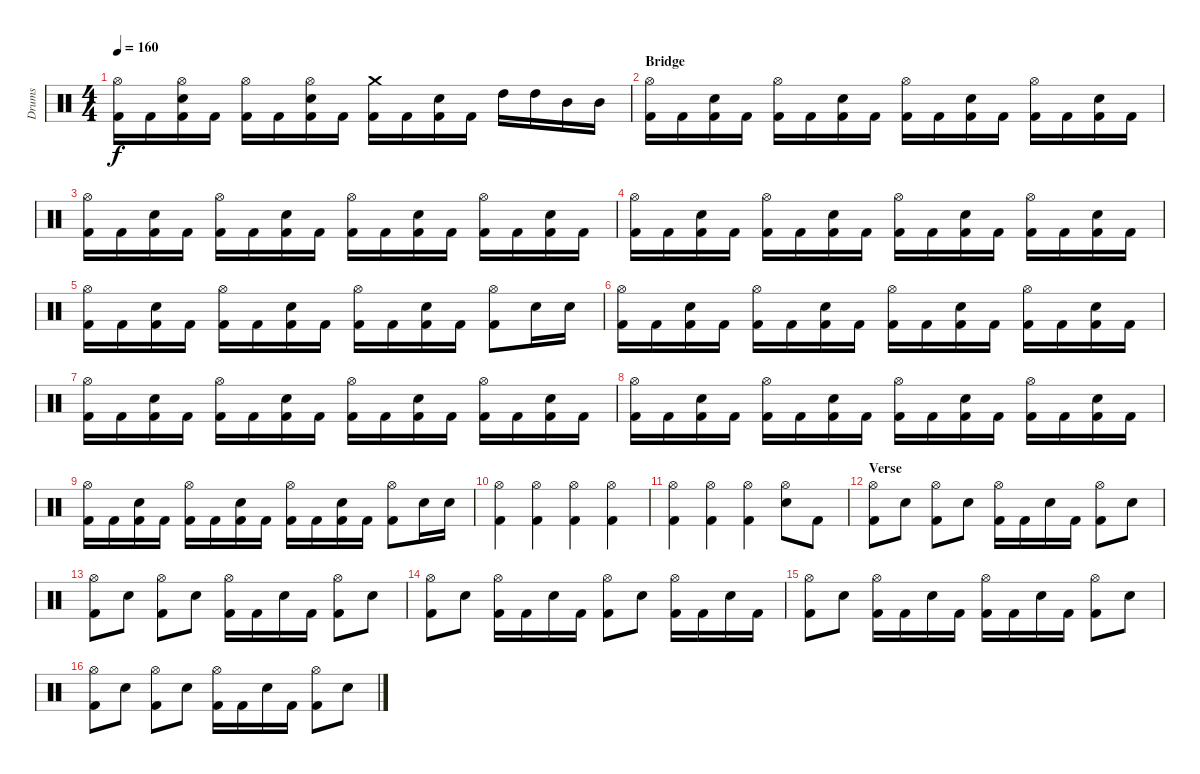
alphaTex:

\track ("Drums" "Drums") {instrument percussion}
\staff {score}
\articulation defaults
\ts (4 4)
\tempo 160
\clef neutral
\ks c
("Hi-Hat (open)" "Kick (hit) 2").16{dy f} "Kick (hit) 2".16 ("Hi-Hat (open)" "Electric Snare (hit)" "Kick (hit) 2").16 "Kick (hit) 2".16 ("Hi-Hat (open)" "Kick (hit) 2").16 "Kick (hit) 2".16 ("Hi-Hat (open)" "Electric Snare (hit)" "Kick (hit) 2").16 "Kick (hit) 2".16 ("Crash medium (hit)" "Kick (hit) 2").16 "Kick (hit) 2".16 ("Electric Snare (hit)" "Kick (hit) 2").16 "Kick (hit) 2".16 "High Tom (hit)".16 "High Tom (hit)".16 "Mid Tom (hit)".16 "Mid Tom (hit)".16 |
\section ("" "Bridge")
("Hi-Hat (open)" "Kick (hit) 2").16 "Kick (hit) 2".16 ("Electric Snare (hit)" "Kick (hit) 2").16 "Kick (hit) 2".16 ("Hi-Hat (open)" "Kick (hit) 2").16 "Kick (hit) 2".16 ("Electric Snare (hit)" "Kick (hit) 2").16 "Kick (hit) 2".16 ("Hi-Hat (open)" "Kick (hit) 2").16 "Kick (hit) 2".16 ("Electric Snare (hit)" "Kick (hit) 2").16 "Kick (hit) 2".16 ("Hi-Hat (open)" "Kick (hit) 2").16 "Kick (hit) 2".16 ("Electric Snare (hit)" "Kick (hit) 2").16 "Kick (hit) 2".16 |
("Hi-Hat (open)" "Kick (hit) 2").16 "Kick (hit) 2".16 ("Electric Snare (hit)" "Kick (hit) 2").16 "Kick (hit) 2".16 ("Hi-Hat (open)" "Kick (hit) 2").16 "Kick (hit) 2".16 ("Electric Snare (hit)" "Kick (hit) 2").16 "Kick (hit) 2".16 ("Hi-Hat (open)" "Kick (hit) 2").16 "Kick (hit) 2".16 ("Electric Snare (hit)" "Kick (hit) 2").16 "Kick (hit) 2".16 ("Hi-Hat (open)" "Kick (hit) 2").16 "Kick (hit) 2".16 ("Electric Snare (hit)" "Kick (hit) 2").16 "Kick (hit) 2".16 |
("Hi-Hat (open)" "Kick (hit) 2").16 "Kick (hit) 2".16 ("Electric Snare (hit)" "Kick (hit) 2").16 "Kick (hit) 2".16 ("Hi-Hat (open)" "Kick (hit) 2").16 "Kick (hit) 2".16 ("Electric Snare (hit)" "Kick (hit) 2").16 "Kick (hit) 2".16 ("Hi-Hat (open)" "Kick (hit) 2").16 "Kick (hit) 2".16 ("Electric Snare (hit)" "Kick (hit) 2").16 "Kick (hit) 2".16 ("Hi-Hat (open)" "Kick (hit) 2").16 "Kick (hit) 2".16 ("Electric Snare (hit)" "Kick (hit) 2").16 "Kick (hit) 2".16 |
("Hi-Hat (open)" "Kick (hit) 2").16 "Kick (hit) 2".16 ("Electric Snare (hit)" "Kick (hit) 2").16 "Kick (hit) 2".16 ("Hi-Hat (open)" "Kick (hit) 2").16 "Kick (hit) 2".16 ("Electric Snare (hit)" "Kick (hit) 2").16 "Kick (hit) 2".16 ("Hi-Hat (open)" "Kick (hit) 2").16 "Kick (hit) 2".16 ("Electric Snare (hit)" "Kick (hit) 2").16 "Kick (hit) 2".16 ("Hi-Hat (open)" "Kick (hit) 2").8 "Electric Snare (hit)".16 "Electric Snare (hit)".16 |
("Hi-Hat (open)" "Kick (hit) 2").16 "Kick (hit) 2".16 ("Electric Snare (hit)" "Kick (hit) 2").16 "Kick (hit) 2".16 ("Hi-Hat (open)" "Kick (hit) 2").16 "Kick (hit) 2".16 ("Electric Snare (hit)" "Kick (hit) 2").16 "Kick (hit) 2".16 ("Hi-Hat (open)" "Kick (hit) 2").16 "Kick (hit) 2".16 ("Electric Snare (hit)" "Kick (hit) 2").16 "Kick (hit) 2".16 ("Hi-Hat (open)" "Kick (hit) 2").16 "Kick (hit) 2".16 ("Electric Snare (hit)" "Kick (hit) 2").16 "Kick (hit) 2".16 |
("Hi-Hat (open)" "Kick (hit) 2").16 "Kick (hit) 2".16 ("Electric Snare (hit)" "Kick (hit) 2").16 "Kick (hit) 2".16 ("Hi-Hat (open)" "Kick (hit) 2").16 "Kick (hit) 2".16 ("Electric Snare (hit)" "Kick (hit) 2").16 "Kick (hit) 2".16 ("Hi-Hat (open)" "Kick (hit) 2").16 "Kick (hit) 2".16 ("Electric Snare (hit)" "Kick (hit) 2").16 "Kick (hit) 2".16 ("Hi-Hat (open)" "Kick (hit) 2").16 "Kick (hit) 2".16 ("Electric Snare (hit)" "Kick (hit) 2").16 "Kick (hit) 2".16 |
("Hi-Hat (open)" "Kick (hit) 2").16 "Kick (hit) 2".16 ("Electric Snare (hit)" "Kick (hit) 2").16 "Kick (hit) 2".16 ("Hi-Hat (open)" "Kick (hit) 2").16 "Kick (hit) 2".16 ("Electric Snare (hit)" "Kick (hit) 2").16 "Kick (hit) 2".16 ("Hi-Hat (open)" "Kick (hit) 2").16 "Kick (hit) 2".16 ("Electric Snare (hit)" "Kick (hit) 2").16 "Kick (hit) 2".16 ("Hi-Hat (open)" "Kick (hit) 2").16 "Kick (hit) 2".16 ("Electric Snare (hit)" "Kick (hit) 2").16 "Kick (hit) 2".16 |
("Hi-Hat (open)" "Kick (hit) 2").16 "Kick (hit) 2".16 ("Electric Snare (hit)" "Kick (hit) 2").16 "Kick (hit) 2".16 ("Hi-Hat (open)" "Kick (hit) 2").16 "Kick (hit) 2".16 ("Electric Snare (hit)" "Kick (hit) 2").16 "Kick (hit) 2".16 ("Hi-Hat (open)" "Kick (hit) 2").16 "Kick (hit) 2".16 ("Electric Snare (hit)" "Kick (hit) 2").16 "Kick (hit) 2".16 ("Hi-Hat (open)" "Kick (hit) 2").8 "Electric Snare (hit)".16 "Electric Snare (hit)".16 |
("Hi-Hat (open)" "Kick (hit) 2").4 ("Hi-Hat (open)" "Kick (hit) 2").4 ("Hi-Hat (open)" "Kick (hit) 2").4 ("Hi-Hat (open)" "Kick (hit) 2").4 |
("Hi-Hat (open)" "Kick (hit) 2").4 ("Hi-Hat (open)" "Kick (hit) 2").4 ("Hi-Hat (open)" "Kick (hit) 2").4 ("Hi-Hat (open)" "Electric Snare (hit)").8 "Kick (hit) 2".8 |
\section ("" "Verse")
("Hi-Hat (open)" "Kick (hit) 2").8 "Electric Snare (hit)".8 ("Hi-Hat (open)" "Kick (hit) 2").8 "Electric Snare (hit)".8 ("Hi-Hat (open)" "Kick (hit) 2").16 "Kick (hit) 2".16 "Electric Snare (hit)".16 "Kick (hit) 2".16 ("Hi-Hat (open)" "Kick (hit) 2").8 "Electric Snare (hit)".8 |
("Hi-Hat (open)" "Kick (hit) 2").8 "Electric Snare (hit)".8 ("Hi-Hat (open)" "Kick (hit) 2").8 "Electric Snare (hit)".8 ("Hi-Hat (open)" "Kick (hit) 2").16 "Kick (hit) 2".16 "Electric Snare (hit)".16 "Kick (hit) 2".16 ("Hi-Hat (open)" "Kick (hit) 2").8 "Electric Snare (hit)".8 |
("Hi-Hat (open)" "Kick (hit) 2").8 "Electric Snare (hit)".8 ("Hi-Hat (open)" "Kick (hit) 2").16 "Kick (hit) 2".16 "Electric Snare (hit)".16 "Kick (hit) 2".16 ("Hi-Hat (open)" "Kick (hit) 2").8 "Electric Snare (hit)".8 ("Hi-Hat (open)" "Kick (hit) 2").16 "Kick (hit) 2".16 "Electric Snare (hit)".16 "Kick (hit) 2".16 |
("Hi-Hat (open)" "Kick (hit) 2").8 "Electric Snare (hit)".8 ("Hi-Hat (open)" "Kick (hit) 2").16 "Kick (hit) 2".16 "Electric Snare (hit)".16 "Kick (hit) 2".16 ("Hi-Hat (open)" "Kick (hit) 2").16 "Kick (hit) 2".16 "Electric Snare (hit)".16 "Kick (hit) 2".16 ("Hi-Hat (open)" "Kick (hit) 2").8 "Electric Snare (hit)".8 |
("Hi-Hat (open)" "Kick (hit) 2").8 "Electric Snare (hit)".8 ("Hi-Hat (open)" "Kick (hit) 2").8 "Electric Snare (hit)".8 ("Hi-Hat (open)" "Kick (hit) 2").16 "Kick (hit) 2".16 "Electric Snare (hit)".16 "Kick (hit) 2".16 ("Hi-Hat (open)" "Kick (hit) 2").8 "Electric Snare (hit)".8
